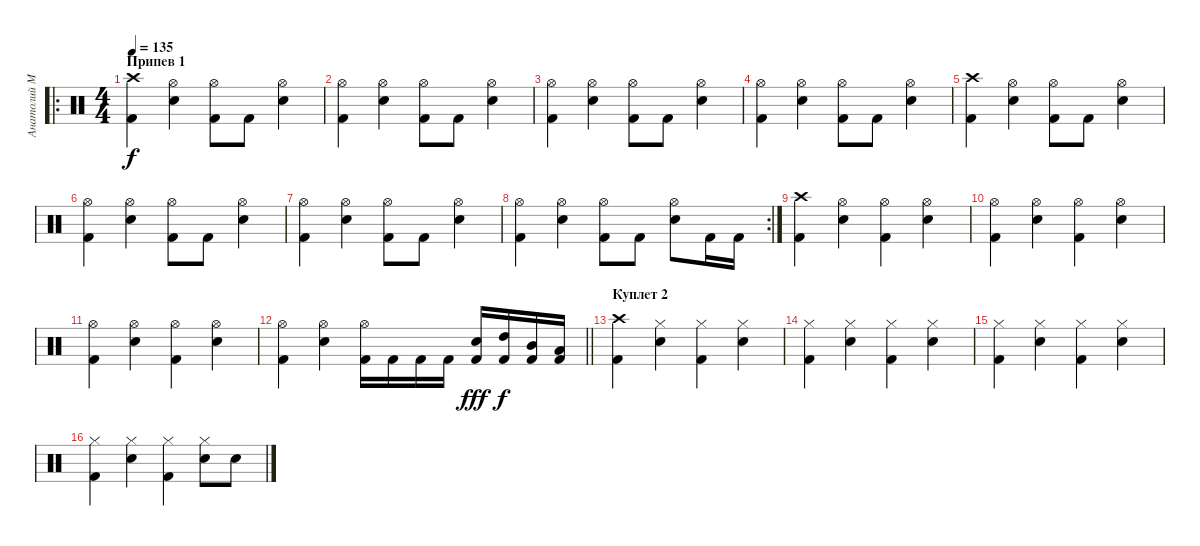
\track ("Анатолий Малиновский" "Анатолий М") {instrument percussion}
\staff {score}
\articulation defaults
\ro
\ts (4 4)
\section ("" "Припев 1")
\tempo 135
\clef neutral
\ks c
("Crash high (hit)" "Kick (hit) 2").4{dy f} ("Hi-Hat (open)" "Electric Snare (hit)").4 ("Hi-Hat (open)" "Kick (hit) 2").8 "Kick (hit) 2".8 ("Hi-Hat (open)" "Electric Snare (hit)").4 |
("Hi-Hat (open)" "Kick (hit) 2").4 ("Hi-Hat (open)" "Electric Snare (hit)").4 ("Hi-Hat (open)" "Kick (hit) 2").8 "Kick (hit) 2".8 ("Hi-Hat (open)" "Electric Snare (hit)").4 |
("Hi-Hat (open)" "Kick (hit) 2").4 ("Hi-Hat (open)" "Electric Snare (hit)").4 ("Hi-Hat (open)" "Kick (hit) 2").8 "Kick (hit) 2".8 ("Hi-Hat (open)" "Electric Snare (hit)").4 |
("Hi-Hat (open)" "Kick (hit) 2").4 ("Hi-Hat (open)" "Electric Snare (hit)").4 ("Hi-Hat (open)" "Kick (hit) 2").8 "Kick (hit) 2".8 ("Hi-Hat (open)" "Electric Snare (hit)").4 |
("Crash high (hit)" "Kick (hit) 2").4 ("Hi-Hat (open)" "Electric Snare (hit)").4 ("Hi-Hat (open)" "Kick (hit) 2").8 "Kick (hit) 2".8 ("Hi-Hat (open)" "Electric Snare (hit)").4 |
("Hi-Hat (open)" "Kick (hit) 2").4 ("Hi-Hat (open)" "Electric Snare (hit)").4 ("Hi-Hat (open)" "Kick (hit) 2").8 "Kick (hit) 2".8 ("Hi-Hat (open)" "Electric Snare (hit)").4 |
("Hi-Hat (open)" "Kick (hit) 2").4 ("Hi-Hat (open)" "Electric Snare (hit)").4 ("Hi-Hat (open)" "Kick (hit) 2").8 "Kick (hit) 2".8 ("Hi-Hat (open)" "Electric Snare (hit)").4 |
\rc 2
("Hi-Hat (open)" "Kick (hit) 2").4 ("Hi-Hat (open)" "Electric Snare (hit)").4 ("Hi-Hat (open)" "Kick (hit) 2").8 "Kick (hit) 2".8 ("Hi-Hat (open)" "Electric Snare (hit)").8 "Kick (hit) 2".16 "Kick (hit) 2".16 |
("Crash high (hit)" "Kick (hit) 2").4 ("Hi-Hat (open)" "Electric Snare (hit)").4 ("Hi-Hat (open)" "Kick (hit) 2").4 ("Hi-Hat (open)" "Electric Snare (hit)").4 |
("Hi-Hat (open)" "Kick (hit) 2").4 ("Hi-Hat (open)" "Electric Snare (hit)").4 ("Hi-Hat (open)" "Kick (hit) 2").4 ("Hi-Hat (open)" "Electric Snare (hit)").4 |
("Hi-Hat (open)" "Kick (hit) 2").4 ("Hi-Hat (open)" "Electric Snare (hit)").4 ("Hi-Hat (open)" "Kick (hit) 2").4 ("Hi-Hat (open)" "Electric Snare (hit)").4 |
\barLineRight lightlight
("Hi-Hat (open)" "Kick (hit) 2").4 ("Hi-Hat (open)" "Electric Snare (hit)").4 ("Hi-Hat (open)" "Kick (hit) 2").16 "Kick (hit) 2".16 "Kick (hit) 2".16 "Kick (hit) 2".16 ("Electric Snare (hit)" "Kick (hit) 2").16{dy fff} ("High Tom (hit)" "Kick (hit) 2").16{dy f} ("Mid Tom (hit)" "Kick (hit) 2").16 ("Low Tom (hit)" "Kick (hit) 2").16 |
\section ("" "Куплет 2")
("Crash high (hit)" "Kick (hit) 2").4 ("Hi-Hat (closed)" "Electric Snare (hit)").4 ("Hi-Hat (closed)" "Kick (hit) 2").4 ("Hi-Hat (closed)" "Electric Snare (hit)").4 |
("Hi-Hat (closed)" "Kick (hit) 2").4 ("Hi-Hat (closed)" "Electric Snare (hit)").4 ("Hi-Hat (closed)" "Kick (hit) 2").4 ("Hi-Hat (closed)" "Electric Snare (hit)").4 |
("Hi-Hat (closed)" "Kick (hit) 2").4 ("Hi-Hat (closed)" "Electric Snare (hit)").4 ("Hi-Hat (closed)" "Kick (hit) 2").4 ("Hi-Hat (closed)" "Electric Snare (hit)").4 |
("Hi-Hat (closed)" "Kick (hit) 2").4 ("Hi-Hat (closed)" "Electric Snare (hit)").4 ("Hi-Hat (closed)" "Kick (hit) 2").4 ("Hi-Hat (closed)" "Electric Snare (hit)").8 "Electric Snare (hit)".8
